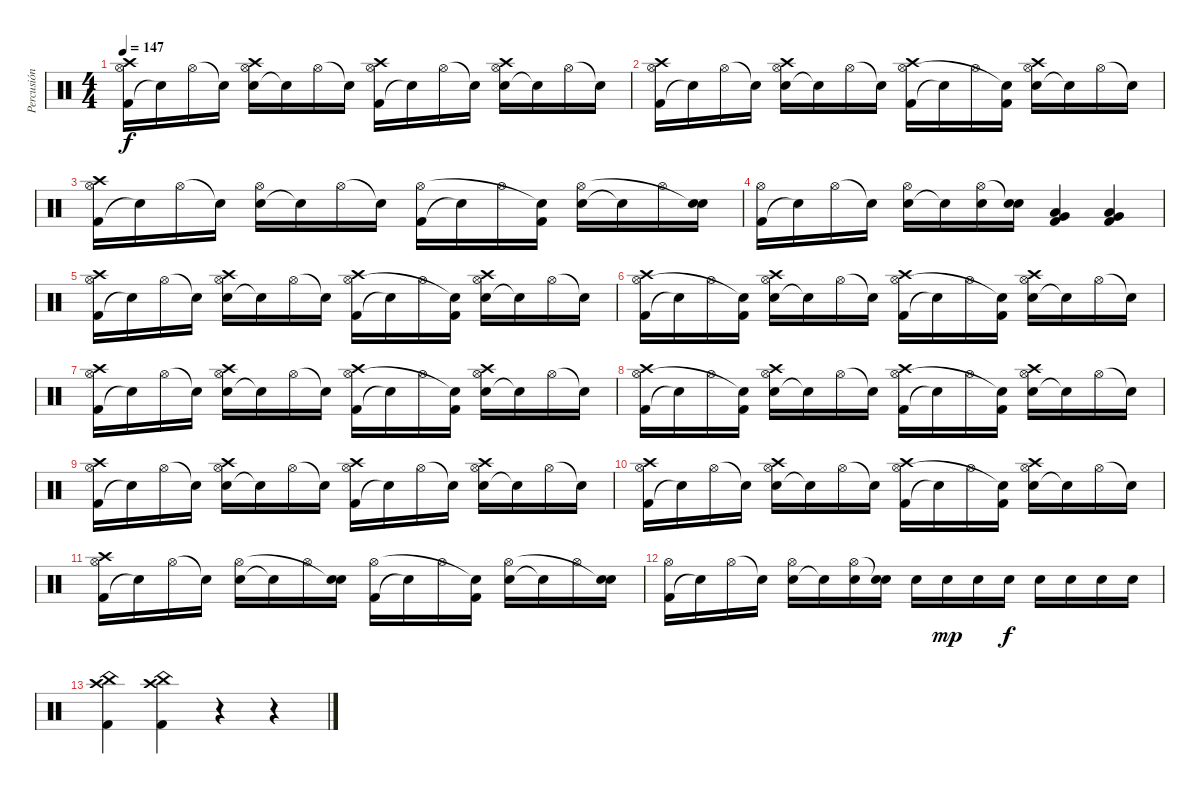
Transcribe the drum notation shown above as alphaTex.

\track ("Percusión" "Percusión") {instrument percussion}
\staff {score}
\articulation defaults
\ts (4 4)
\tempo 147
\clef neutral
\ks c
("Kick (hit) 2" "Hi-Hat (open)" "Crash high (hit)").16{dy f} "Snare (hit)"{t}.16 "Hi-Hat (open)".16 "Snare (hit)"{t}.16 ("Electric Snare (hit)" "Hi-Hat (open)" "Crash high (hit)").16 "Snare (hit)"{t}.16 "Hi-Hat (open)".16 "Snare (hit)"{t}.16 ("Kick (hit) 2" "Hi-Hat (open)" "Crash high (hit)").16 "Snare (hit)"{t}.16 "Hi-Hat (open)".16 "Snare (hit)"{t}.16 ("Electric Snare (hit)" "Hi-Hat (open)" "Crash high (hit)").16 "Snare (hit)"{t}.16 "Hi-Hat (open)".16 "Snare (hit)"{t}.16 |
("Kick (hit) 2" "Hi-Hat (open)" "Crash high (hit)").16 "Snare (hit)"{t}.16 "Hi-Hat (open)".16 "Snare (hit)"{t}.16 ("Electric Snare (hit)" "Hi-Hat (open)" "Crash high (hit)").16 "Snare (hit)"{t}.16 "Hi-Hat (open)".16 "Snare (hit)"{t}.16 ("Kick (hit) 2" "Hi-Hat (open)" "Crash high (hit)").16 "Snare (hit)"{t}.16 "Hi-Hat (open)".16 ("Kick (hit) 2" "Snare (hit)"{t}).16 ("Electric Snare (hit)" "Hi-Hat (open)" "Crash high (hit)").16 "Snare (hit)"{t}.16 "Hi-Hat (open)".16 "Snare (hit)"{t}.16 |
("Kick (hit) 2" "Hi-Hat (open)" "Crash high (hit)").16 "Snare (hit)"{t}.16 "Hi-Hat (open)".16 "Snare (hit)"{t}.16 ("Electric Snare (hit)" "Hi-Hat (open)").16 "Snare (hit)"{t}.16 "Hi-Hat (open)".16 "Snare (hit)"{t}.16 ("Kick (hit) 2" "Hi-Hat (open)").16 "Snare (hit)"{t}.16 "Hi-Hat (open)".16 ("Kick (hit) 2" "Snare (hit)"{t}).16 ("Electric Snare (hit)" "Hi-Hat (open)").16 "Snare (hit)"{t}.16 "Hi-Hat (open)".16 ("Electric Snare (hit)" "Snare (hit)"{t}).16 |
("Kick (hit) 2" "Hi-Hat (open)").16 "Snare (hit)"{t}.16 "Hi-Hat (open)".16 "Snare (hit)"{t}.16 ("Electric Snare (hit)" "Hi-Hat (open)").16 "Snare (hit)"{t}.16 ("Electric Snare (hit)" "Hi-Hat (open)").16 ("Electric Snare (hit)" "Snare (hit)"{t}).16 ("Kick (hit) 2" "Very Low Tom (hit)" "Low Floor Tom (hit)").4 ("Kick (hit) 2" "Very Low Tom (hit)" "Low Floor Tom (hit)").4 |
("Kick (hit) 2" "Hi-Hat (open)" "Crash high (hit)").16 "Snare (hit)"{t}.16 "Hi-Hat (open)".16 "Snare (hit)"{t}.16 ("Electric Snare (hit)" "Hi-Hat (open)" "Crash high (hit)").16 "Snare (hit)"{t}.16 "Hi-Hat (open)".16 "Snare (hit)"{t}.16 ("Kick (hit) 2" "Hi-Hat (open)" "Crash high (hit)").16 "Snare (hit)"{t}.16 "Hi-Hat (open)".16 ("Kick (hit) 2" "Snare (hit)"{t}).16 ("Electric Snare (hit)" "Hi-Hat (open)" "Crash high (hit)").16 "Snare (hit)"{t}.16 "Hi-Hat (open)".16 "Snare (hit)"{t}.16 |
("Kick (hit) 2" "Hi-Hat (open)" "Crash high (hit)").16 "Snare (hit)"{t}.16 "Hi-Hat (open)".16 ("Kick (hit) 2" "Snare (hit)"{t}).16 ("Electric Snare (hit)" "Hi-Hat (open)" "Crash high (hit)").16 "Snare (hit)"{t}.16 "Hi-Hat (open)".16 "Snare (hit)"{t}.16 ("Kick (hit) 2" "Hi-Hat (open)" "Crash high (hit)").16 "Snare (hit)"{t}.16 "Hi-Hat (open)".16 ("Kick (hit) 2" "Snare (hit)"{t}).16 ("Electric Snare (hit)" "Hi-Hat (open)" "Crash high (hit)").16 "Snare (hit)"{t}.16 "Hi-Hat (open)".16 "Snare (hit)"{t}.16 |
("Kick (hit) 2" "Hi-Hat (open)" "Crash high (hit)").16 "Snare (hit)"{t}.16 "Hi-Hat (open)".16 "Snare (hit)"{t}.16 ("Electric Snare (hit)" "Hi-Hat (open)" "Crash high (hit)").16 "Snare (hit)"{t}.16 "Hi-Hat (open)".16 "Snare (hit)"{t}.16 ("Kick (hit) 2" "Hi-Hat (open)" "Crash high (hit)").16 "Snare (hit)"{t}.16 "Hi-Hat (open)".16 ("Kick (hit) 2" "Snare (hit)"{t}).16 ("Electric Snare (hit)" "Hi-Hat (open)" "Crash high (hit)").16 "Snare (hit)"{t}.16 "Hi-Hat (open)".16 "Snare (hit)"{t}.16 |
("Kick (hit) 2" "Hi-Hat (open)" "Crash high (hit)").16 "Snare (hit)"{t}.16 "Hi-Hat (open)".16 ("Kick (hit) 2" "Snare (hit)"{t}).16 ("Electric Snare (hit)" "Hi-Hat (open)" "Crash high (hit)").16 "Snare (hit)"{t}.16 "Hi-Hat (open)".16 "Snare (hit)"{t}.16 ("Kick (hit) 2" "Hi-Hat (open)" "Crash high (hit)").16 "Snare (hit)"{t}.16 "Hi-Hat (open)".16 ("Kick (hit) 2" "Snare (hit)"{t}).16 ("Electric Snare (hit)" "Hi-Hat (open)" "Crash high (hit)").16 "Snare (hit)"{t}.16 "Hi-Hat (open)".16 "Snare (hit)"{t}.16 |
("Kick (hit) 2" "Hi-Hat (open)" "Crash high (hit)").16 "Snare (hit)"{t}.16 "Hi-Hat (open)".16 "Snare (hit)"{t}.16 ("Electric Snare (hit)" "Hi-Hat (open)" "Crash high (hit)").16 "Snare (hit)"{t}.16 "Hi-Hat (open)".16 "Snare (hit)"{t}.16 ("Kick (hit) 2" "Hi-Hat (open)" "Crash high (hit)").16 "Snare (hit)"{t}.16 "Hi-Hat (open)".16 "Snare (hit)"{t}.16 ("Electric Snare (hit)" "Hi-Hat (open)" "Crash high (hit)").16 "Snare (hit)"{t}.16 "Hi-Hat (open)".16 "Snare (hit)"{t}.16 |
("Kick (hit) 2" "Hi-Hat (open)" "Crash high (hit)").16 "Snare (hit)"{t}.16 "Hi-Hat (open)".16 "Snare (hit)"{t}.16 ("Electric Snare (hit)" "Hi-Hat (open)" "Crash high (hit)").16 "Snare (hit)"{t}.16 "Hi-Hat (open)".16 "Snare (hit)"{t}.16 ("Kick (hit) 2" "Hi-Hat (open)" "Crash high (hit)").16 "Snare (hit)"{t}.16 "Hi-Hat (open)".16 ("Kick (hit) 2" "Snare (hit)"{t}).16 ("Electric Snare (hit)" "Hi-Hat (open)" "Crash high (hit)").16 "Snare (hit)"{t}.16 "Hi-Hat (open)".16 "Snare (hit)"{t}.16 |
("Kick (hit) 2" "Hi-Hat (open)" "Crash high (hit)").16 "Snare (hit)"{t}.16 "Hi-Hat (open)".16 "Snare (hit)"{t}.16 ("Electric Snare (hit)" "Hi-Hat (open)").16 "Snare (hit)"{t}.16 "Hi-Hat (open)".16 ("Electric Snare (hit)" "Snare (hit)"{t}).16 ("Kick (hit) 2" "Hi-Hat (open)").16 "Snare (hit)"{t}.16 "Hi-Hat (open)".16 ("Kick (hit) 2" "Snare (hit)"{t}).16 ("Electric Snare (hit)" "Hi-Hat (open)").16 "Snare (hit)"{t}.16 "Hi-Hat (open)".16 ("Electric Snare (hit)" "Snare (hit)"{t}).16 |
("Kick (hit) 2" "Hi-Hat (open)").16 "Snare (hit)"{t}.16 "Hi-Hat (open)".16 "Snare (hit)"{t}.16 ("Electric Snare (hit)" "Hi-Hat (open)").16 "Snare (hit)"{t}.16 ("Electric Snare (hit)" "Hi-Hat (open)").16 ("Electric Snare (hit)" "Snare (hit)"{t}).16 "Electric Snare (hit)".16 "Electric Snare (hit)".16{dy mp} "Electric Snare (hit)".16 "Electric Snare (hit)".16{dy f} "Electric Snare (hit)".16 "Electric Snare (hit)".16 "Electric Snare (hit)".16 "Electric Snare (hit)".16 |
("Kick (hit) 2" "China (hit)" "Crash high (hit)").4 ("Kick (hit) 2" "China (hit)" "Crash high (hit)").4 r.4 r.4
